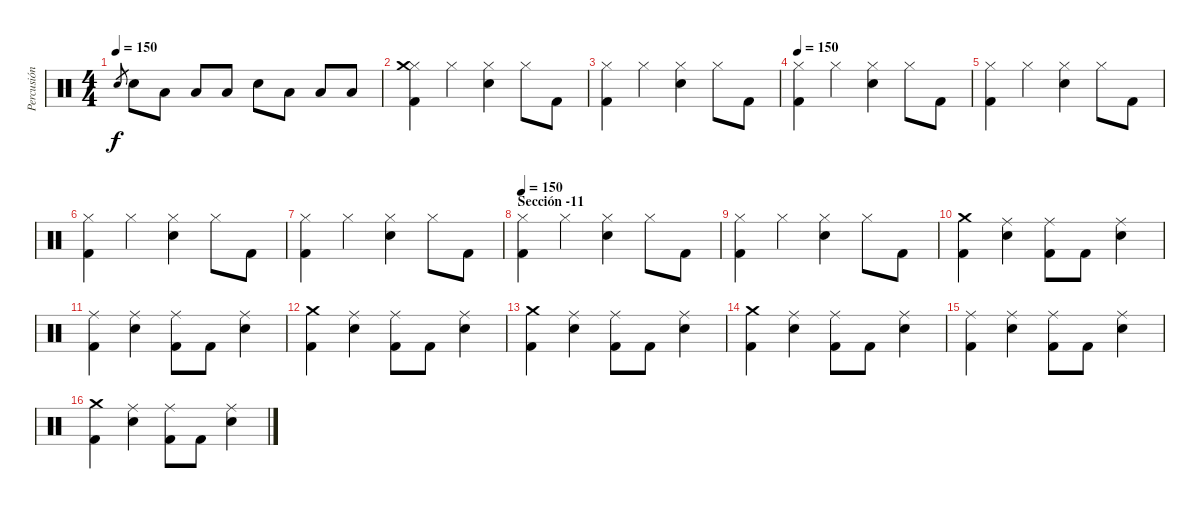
\track ("Percusión" "Percusión") {instrument percussion}
\staff {score}
\articulation defaults
\ts (4 4)
\tempo 150
\clef neutral
\ks c "Snare (hit) 2".8{gr dy f} "Snare (hit) 2".8 "Low Tom (hit)".8 "Low Tom (hit)".8 "Low Tom (hit)".8 "Snare (hit) 2".8 "Low Tom (hit)".8 "Low Tom (hit)".8 "Low Tom (hit)".8
|
("Hi-Hat (closed)" "Crash medium (hit)" "Kick (hit) 2").4 "Hi-Hat (closed)".4 ("Hi-Hat (closed)" "Snare (hit) 2").4 "Hi-Hat (closed)".8 "Kick (hit) 2".8 |
("Hi-Hat (closed)" "Kick (hit) 2").4 "Hi-Hat (closed)".4 ("Hi-Hat (closed)" "Snare (hit) 2").4 "Hi-Hat (closed)".8 "Kick (hit) 2".8 |
\tempo 150
("Hi-Hat (closed)" "Kick (hit) 2").4 "Hi-Hat (closed)".4 ("Hi-Hat (closed)" "Snare (hit) 2").4 "Hi-Hat (closed)".8 "Kick (hit) 2".8 |
("Hi-Hat (closed)" "Kick (hit) 2").4 "Hi-Hat (closed)".4 ("Hi-Hat (closed)" "Snare (hit) 2").4 "Hi-Hat (closed)".8 "Kick (hit) 2".8 |
("Hi-Hat (closed)" "Kick (hit) 2").4 "Hi-Hat (closed)".4 ("Hi-Hat (closed)" "Snare (hit) 2").4 "Hi-Hat (closed)".8 "Kick (hit) 2".8 |
("Hi-Hat (closed)" "Kick (hit) 2").4 "Hi-Hat (closed)".4 ("Hi-Hat (closed)" "Snare (hit) 2").4 "Hi-Hat (closed)".8 "Kick (hit) 2".8 |
\section ("" "Sección -11")
\tempo 150
("Hi-Hat (closed)" "Kick (hit) 2").4 "Hi-Hat (closed)".4 ("Hi-Hat (closed)" "Snare (hit) 2").4 "Hi-Hat (closed)".8 "Kick (hit) 2".8 |
("Hi-Hat (closed)" "Kick (hit) 2").4 "Hi-Hat (closed)".4 ("Hi-Hat (closed)" "Snare (hit) 2").4 "Hi-Hat (closed)".8 "Kick (hit) 2".8 |
("Crash medium (hit)" "Kick (hit) 2").4 ("Ride (middle)" "Snare (hit) 2").4 ("Ride (middle)" "Kick (hit) 2").8 "Kick (hit) 2".8 ("Ride (middle)" "Snare (hit) 2").4 |
("Ride (middle)" "Kick (hit) 2").4 ("Ride (middle)" "Snare (hit) 2").4 ("Ride (middle)" "Kick (hit) 2").8 "Kick (hit) 2".8 ("Ride (middle)" "Snare (hit) 2").4 |
("Crash medium (hit)" "Kick (hit) 2").4 ("Ride (middle)" "Snare (hit) 2").4 ("Ride (middle)" "Kick (hit) 2").8 "Kick (hit) 2".8 ("Ride (middle)" "Snare (hit) 2").4 |
("Crash medium (hit)" "Kick (hit) 2").4 ("Ride (middle)" "Snare (hit) 2").4 ("Ride (middle)" "Kick (hit) 2").8 "Kick (hit) 2".8 ("Ride (middle)" "Snare (hit) 2").4 |
("Crash medium (hit)" "Kick (hit) 2").4 ("Ride (middle)" "Snare (hit) 2").4 ("Ride (middle)" "Kick (hit) 2").8 "Kick (hit) 2".8 ("Ride (middle)" "Snare (hit) 2").4 |
("Ride (middle)" "Kick (hit) 2").4 ("Ride (middle)" "Snare (hit) 2").4 ("Ride (middle)" "Kick (hit) 2").8 "Kick (hit) 2".8 ("Ride (middle)" "Snare (hit) 2").4 |
("Crash medium (hit)" "Kick (hit) 2").4 ("Ride (middle)" "Snare (hit) 2").4 ("Ride (middle)" "Kick (hit) 2").8 "Kick (hit) 2".8 ("Ride (middle)" "Snare (hit) 2").4
